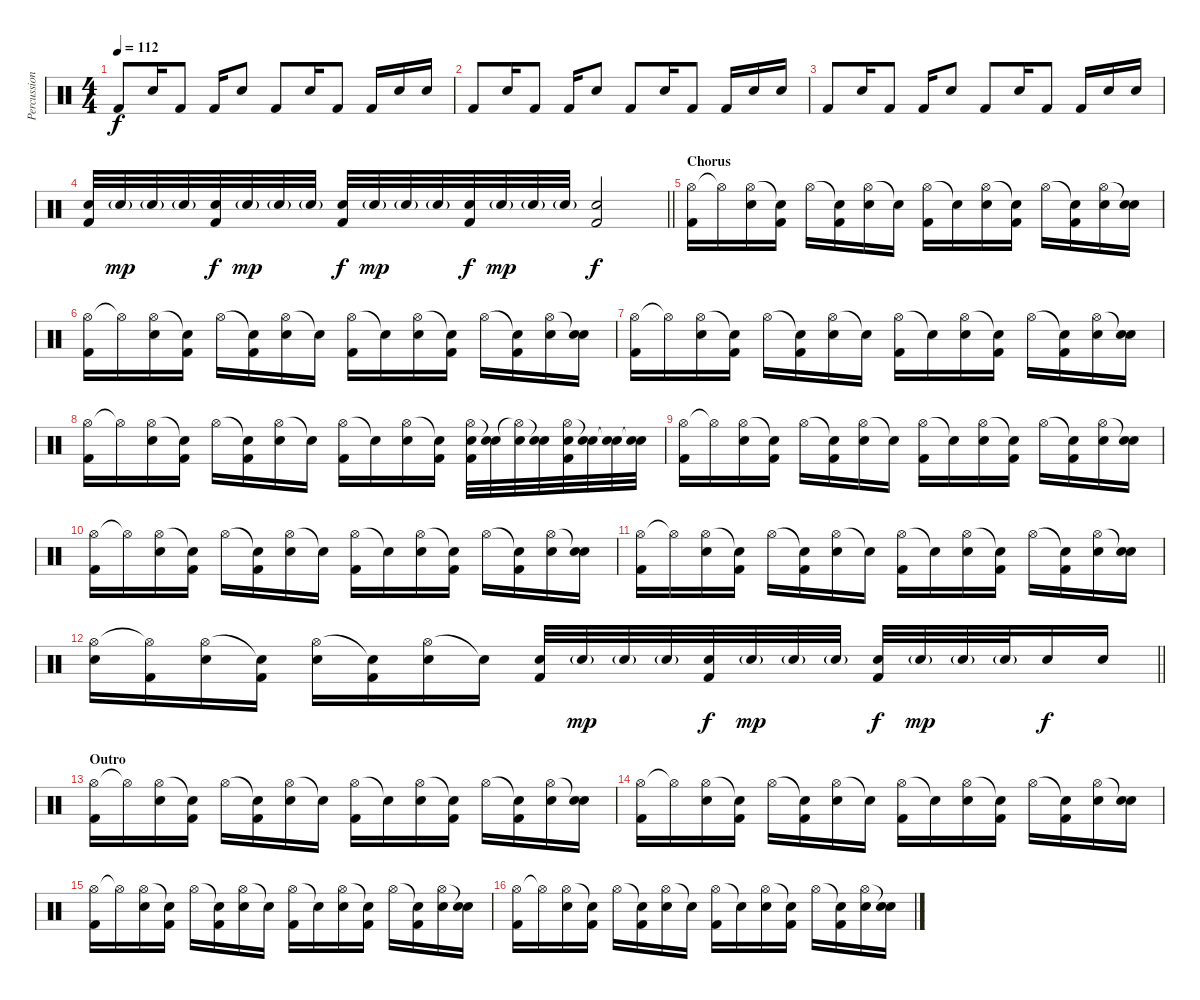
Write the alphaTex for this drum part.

\track ("Percussion" "Percussion") {instrument percussion}
\staff {score}
\articulation defaults
\ts (4 4)
\tempo 112
\clef neutral
\ks c "Kick (hit) 2".8{dy f} "Snare (hit) 2".16 "Kick (hit) 2".8 "Kick (hit) 2".16 "Snare (hit) 2".8 "Kick (hit) 2".8 "Snare (hit) 2".16 "Kick (hit) 2".8 "Kick (hit) 2".16 "Snare (hit) 2".16 "Snare (hit) 2".16
|
"Kick (hit) 2".8 "Snare (hit) 2".16 "Kick (hit) 2".8 "Kick (hit) 2".16 "Snare (hit) 2".8 "Kick (hit) 2".8 "Snare (hit) 2".16 "Kick (hit) 2".8 "Kick (hit) 2".16 "Snare (hit) 2".16 "Snare (hit) 2".16 |
"Kick (hit) 2".8 "Snare (hit) 2".16 "Kick (hit) 2".8 "Kick (hit) 2".16 "Snare (hit) 2".8 "Kick (hit) 2".8 "Snare (hit) 2".16 "Kick (hit) 2".8 "Kick (hit) 2".16 "Snare (hit) 2".16 "Snare (hit) 2".16 |
\barLineRight lightlight
("Snare (hit) 2" "Kick (hit) 2").32 "Snare (hit) 2"{g}.32{dy mp} "Snare (hit) 2"{g}.32 "Snare (hit) 2"{g}.32 ("Snare (hit) 2" "Kick (hit) 2").32{dy f} "Snare (hit) 2"{g}.32{dy mp} "Snare (hit) 2"{g}.32 "Snare (hit) 2"{g}.32 ("Snare (hit) 2" "Kick (hit) 2").32{dy f} "Snare (hit) 2"{g}.32{dy mp} "Snare (hit) 2"{g}.32 "Snare (hit) 2"{g}.32 ("Snare (hit) 2" "Kick (hit) 2").32{dy f} "Snare (hit) 2"{g}.32{dy mp} "Snare (hit) 2"{g}.32 "Snare (hit) 2"{g}.32 ("Snare (hit) 2" "Kick (hit) 2").2{dy f} |
\section ("" "Chorus")
("Hi-Hat (open)" "Kick (hit) 2").16 "Hi-Hat (open)"{t}.16 ("Hi-Hat (open)" "Snare (hit) 2").16 ("Snare (hit)"{t} "Kick (hit) 2").16 "Hi-Hat (open)".16 ("Snare (hit)"{t} "Kick (hit) 2").16 ("Hi-Hat (open)" "Snare (hit) 2").16 "Snare (hit)"{t}.16 ("Hi-Hat (open)" "Kick (hit) 2").16 "Snare (hit)"{t}.16 ("Hi-Hat (open)" "Snare (hit) 2").16 ("Snare (hit)"{t} "Kick (hit) 2").16 "Hi-Hat (open)".16 ("Snare (hit)"{t} "Kick (hit) 2").16 ("Hi-Hat (open)" "Snare (hit) 2").16 ("Snare (hit)"{t} "Snare (hit) 2").16 |
("Hi-Hat (open)" "Kick (hit) 2").16 "Hi-Hat (open)"{t}.16 ("Hi-Hat (open)" "Snare (hit) 2").16 ("Snare (hit)"{t} "Kick (hit) 2").16 "Hi-Hat (open)".16 ("Snare (hit)"{t} "Kick (hit) 2").16 ("Hi-Hat (open)" "Snare (hit) 2").16 "Snare (hit)"{t}.16 ("Hi-Hat (open)" "Kick (hit) 2").16 "Snare (hit)"{t}.16 ("Hi-Hat (open)" "Snare (hit) 2").16 ("Snare (hit)"{t} "Kick (hit) 2").16 "Hi-Hat (open)".16 ("Snare (hit)"{t} "Kick (hit) 2").16 ("Hi-Hat (open)" "Snare (hit) 2").16 ("Snare (hit)"{t} "Snare (hit) 2").16 |
("Hi-Hat (open)" "Kick (hit) 2").16 "Hi-Hat (open)"{t}.16 ("Hi-Hat (open)" "Snare (hit) 2").16 ("Snare (hit)"{t} "Kick (hit) 2").16 "Hi-Hat (open)".16 ("Snare (hit)"{t} "Kick (hit) 2").16 ("Hi-Hat (open)" "Snare (hit) 2").16 "Snare (hit)"{t}.16 ("Hi-Hat (open)" "Kick (hit) 2").16 "Snare (hit)"{t}.16 ("Hi-Hat (open)" "Snare (hit) 2").16 ("Snare (hit)"{t} "Kick (hit) 2").16 "Hi-Hat (open)".16 ("Snare (hit)"{t} "Kick (hit) 2").16 ("Hi-Hat (open)" "Snare (hit) 2").16 ("Snare (hit)"{t} "Snare (hit) 2").16 |
("Hi-Hat (open)" "Kick (hit) 2").16 "Hi-Hat (open)"{t}.16 ("Hi-Hat (open)" "Snare (hit) 2").16 ("Snare (hit)"{t} "Kick (hit) 2").16 "Hi-Hat (open)".16 ("Snare (hit)"{t} "Kick (hit) 2").16 ("Hi-Hat (open)" "Snare (hit) 2").16 "Snare (hit)"{t}.16 ("Hi-Hat (open)" "Kick (hit) 2").16 "Snare (hit)"{t}.16 ("Hi-Hat (open)" "Snare (hit) 2").16 ("Snare (hit)"{t} "Kick (hit) 2").16 ("Hi-Hat (open)" "Snare (hit) 2" "Kick (hit) 2").32 ("Snare (hit)"{t} "Snare (hit) 2").32 ("Hi-Hat (open)"{t} "Snare (hit) 2").32 ("Snare (hit)"{t} "Snare (hit) 2").32 ("Hi-Hat (open)" "Snare (hit) 2" "Kick (hit) 2").32 ("Snare (hit)"{t} "Snare (hit) 2").32 ("Snare (hit)"{t} "Snare (hit) 2").32 ("Snare (hit)"{t} "Snare (hit) 2").32 |
("Hi-Hat (open)" "Kick (hit) 2").16 "Hi-Hat (open)"{t}.16 ("Hi-Hat (open)" "Snare (hit) 2").16 ("Snare (hit)"{t} "Kick (hit) 2").16 "Hi-Hat (open)".16 ("Snare (hit)"{t} "Kick (hit) 2").16 ("Hi-Hat (open)" "Snare (hit) 2").16 "Snare (hit)"{t}.16 ("Hi-Hat (open)" "Kick (hit) 2").16 "Snare (hit)"{t}.16 ("Hi-Hat (open)" "Snare (hit) 2").16 ("Snare (hit)"{t} "Kick (hit) 2").16 "Hi-Hat (open)".16 ("Snare (hit)"{t} "Kick (hit) 2").16 ("Hi-Hat (open)" "Snare (hit) 2").16 ("Snare (hit)"{t} "Snare (hit) 2").16 |
("Hi-Hat (open)" "Kick (hit) 2").16 "Hi-Hat (open)"{t}.16 ("Hi-Hat (open)" "Snare (hit) 2").16 ("Snare (hit)"{t} "Kick (hit) 2").16 "Hi-Hat (open)".16 ("Snare (hit)"{t} "Kick (hit) 2").16 ("Hi-Hat (open)" "Snare (hit) 2").16 "Snare (hit)"{t}.16 ("Hi-Hat (open)" "Kick (hit) 2").16 "Snare (hit)"{t}.16 ("Hi-Hat (open)" "Snare (hit) 2").16 ("Snare (hit)"{t} "Kick (hit) 2").16 "Hi-Hat (open)".16 ("Snare (hit)"{t} "Kick (hit) 2").16 ("Hi-Hat (open)" "Snare (hit) 2").16 ("Snare (hit)"{t} "Snare (hit) 2").16 |
("Hi-Hat (open)" "Kick (hit) 2").16 "Hi-Hat (open)"{t}.16 ("Hi-Hat (open)" "Snare (hit) 2").16 ("Snare (hit)"{t} "Kick (hit) 2").16 "Hi-Hat (open)".16 ("Snare (hit)"{t} "Kick (hit) 2").16 ("Hi-Hat (open)" "Snare (hit) 2").16 "Snare (hit)"{t}.16 ("Hi-Hat (open)" "Kick (hit) 2").16 "Snare (hit)"{t}.16 ("Hi-Hat (open)" "Snare (hit) 2").16 ("Snare (hit)"{t} "Kick (hit) 2").16 "Hi-Hat (open)".16 ("Snare (hit)"{t} "Kick (hit) 2").16 ("Hi-Hat (open)" "Snare (hit) 2").16 ("Snare (hit)"{t} "Snare (hit) 2").16 |
\barLineRight lightlight
("Hi-Hat (open)" "Snare (hit) 2").16 ("Hi-Hat (open)"{t} "Kick (hit) 2").16 ("Hi-Hat (open)" "Snare (hit) 2").16 ("Snare (hit)"{t} "Kick (hit) 2").16 ("Hi-Hat (open)" "Snare (hit) 2").16 ("Snare (hit)"{t} "Kick (hit) 2").16 ("Hi-Hat (open)" "Snare (hit) 2").16 "Snare (hit)"{t}.16 ("Snare (hit) 2" "Kick (hit) 2").32 "Snare (hit) 2"{g}.32{dy mp} "Snare (hit) 2"{g}.32 "Snare (hit) 2"{g}.32 ("Snare (hit) 2" "Kick (hit) 2").32{dy f} "Snare (hit) 2"{g}.32{dy mp} "Snare (hit) 2"{g}.32 "Snare (hit) 2"{g}.32 ("Snare (hit) 2" "Kick (hit) 2").32{dy f} "Snare (hit) 2"{g}.32{dy mp} "Snare (hit) 2"{g}.32 "Snare (hit) 2"{g}.32 "Snare (hit) 2".16{dy f} "Snare (hit) 2".16 |
\section ("" "Outro")
("Hi-Hat (open)" "Kick (hit) 2").16 "Hi-Hat (open)"{t}.16 ("Hi-Hat (open)" "Snare (hit) 2").16 ("Snare (hit)"{t} "Kick (hit) 2").16 "Hi-Hat (open)".16 ("Snare (hit)"{t} "Kick (hit) 2").16 ("Hi-Hat (open)" "Snare (hit) 2").16 "Snare (hit)"{t}.16 ("Hi-Hat (open)" "Kick (hit) 2").16 "Snare (hit)"{t}.16 ("Hi-Hat (open)" "Snare (hit) 2").16 ("Snare (hit)"{t} "Kick (hit) 2").16 "Hi-Hat (open)".16 ("Snare (hit)"{t} "Kick (hit) 2").16 ("Hi-Hat (open)" "Snare (hit) 2").16 ("Snare (hit)"{t} "Snare (hit) 2").16 |
("Hi-Hat (open)" "Kick (hit) 2").16 "Hi-Hat (open)"{t}.16 ("Hi-Hat (open)" "Snare (hit) 2").16 ("Snare (hit)"{t} "Kick (hit) 2").16 "Hi-Hat (open)".16 ("Snare (hit)"{t} "Kick (hit) 2").16 ("Hi-Hat (open)" "Snare (hit) 2").16 "Snare (hit)"{t}.16 ("Hi-Hat (open)" "Kick (hit) 2").16 "Snare (hit)"{t}.16 ("Hi-Hat (open)" "Snare (hit) 2").16 ("Snare (hit)"{t} "Kick (hit) 2").16 "Hi-Hat (open)".16 ("Snare (hit)"{t} "Kick (hit) 2").16 ("Hi-Hat (open)" "Snare (hit) 2").16 ("Snare (hit)"{t} "Snare (hit) 2").16 |
("Hi-Hat (open)" "Kick (hit) 2").16 "Hi-Hat (open)"{t}.16 ("Hi-Hat (open)" "Snare (hit) 2").16 ("Snare (hit)"{t} "Kick (hit) 2").16 "Hi-Hat (open)".16 ("Snare (hit)"{t} "Kick (hit) 2").16 ("Hi-Hat (open)" "Snare (hit) 2").16 "Snare (hit)"{t}.16 ("Hi-Hat (open)" "Kick (hit) 2").16 "Snare (hit)"{t}.16 ("Hi-Hat (open)" "Snare (hit) 2").16 ("Snare (hit)"{t} "Kick (hit) 2").16 "Hi-Hat (open)".16 ("Snare (hit)"{t} "Kick (hit) 2").16 ("Hi-Hat (open)" "Snare (hit) 2").16 ("Snare (hit)"{t} "Snare (hit) 2").16 |
("Hi-Hat (open)" "Kick (hit) 2").16 "Hi-Hat (open)"{t}.16 ("Hi-Hat (open)" "Snare (hit) 2").16 ("Snare (hit)"{t} "Kick (hit) 2").16 "Hi-Hat (open)".16 ("Snare (hit)"{t} "Kick (hit) 2").16 ("Hi-Hat (open)" "Snare (hit) 2").16 "Snare (hit)"{t}.16 ("Hi-Hat (open)" "Kick (hit) 2").16 "Snare (hit)"{t}.16 ("Hi-Hat (open)" "Snare (hit) 2").16 ("Snare (hit)"{t} "Kick (hit) 2").16 "Hi-Hat (open)".16 ("Snare (hit)"{t} "Kick (hit) 2").16 ("Hi-Hat (open)" "Snare (hit) 2").16 ("Snare (hit)"{t} "Snare (hit) 2").16
